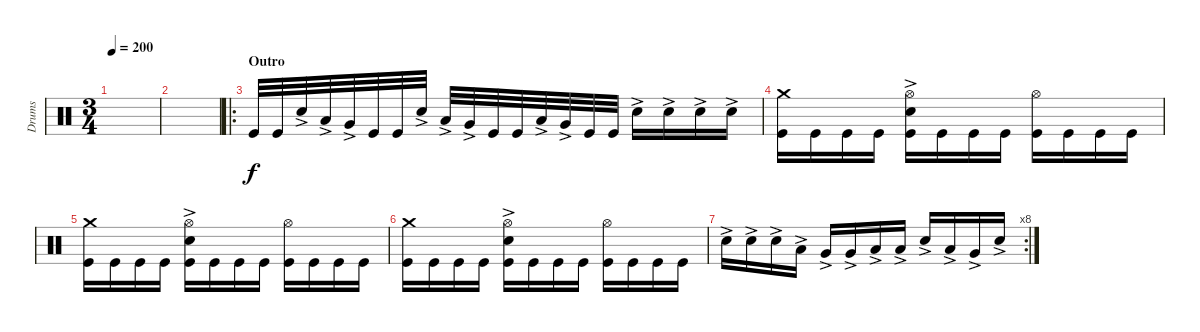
\track ("Drums" "Drums") {instrument percussion}
\staff {score}
\articulation defaults
\ts (3 4)
\tempo 200
\clef neutral
\ks c
|
|
\ro
\section ("" "Outro")
"Kick (hit)".32 "Kick (hit)".32 "Snare (hit) 2"{ac}.32 "Low Tom (hit)"{ac}.32 "Very Low Tom (hit)"{ac}.32 "Kick (hit)".32 "Kick (hit)".32 "Snare (hit) 2"{ac}.32 "Low Tom (hit)"{ac}.32 "Very Low Tom (hit)"{ac}.32 "Kick (hit)".32 "Kick (hit)".32 "Low Tom (hit)"{ac}.32 "Very Low Tom (hit)"{ac}.32 "Kick (hit)".32 "Kick (hit)".32 "Snare (hit) 2"{ac}.16 "Snare (hit) 2"{ac}.16 "Snare (hit) 2"{ac}.16 "Snare (hit) 2"{ac}.16 |
("Kick (hit)" "Crash medium (hit)").16 "Kick (hit)".16 "Kick (hit)".16 "Kick (hit)".16 ("Kick (hit)" "Hi-Hat (open)" "Snare (hit) 2"{ac}).16 "Kick (hit)".16 "Kick (hit)".16 "Kick (hit)".16 ("Kick (hit)" "Hi-Hat (open)").16 "Kick (hit)".16 "Kick (hit)".16 "Kick (hit)".16 |
("Kick (hit)" "Crash medium (hit)").16 "Kick (hit)".16 "Kick (hit)".16 "Kick (hit)".16 ("Kick (hit)" "Hi-Hat (open)" "Snare (hit) 2"{ac}).16 "Kick (hit)".16 "Kick (hit)".16 "Kick (hit)".16 ("Kick (hit)" "Hi-Hat (open)").16 "Kick (hit)".16 "Kick (hit)".16 "Kick (hit)".16 |
("Kick (hit)" "Crash medium (hit)").16 "Kick (hit)".16 "Kick (hit)".16 "Kick (hit)".16 ("Kick (hit)" "Hi-Hat (open)" "Snare (hit) 2"{ac}).16 "Kick (hit)".16 "Kick (hit)".16 "Kick (hit)".16 ("Kick (hit)" "Hi-Hat (open)").16 "Kick (hit)".16 "Kick (hit)".16 "Kick (hit)".16 |
\rc 8 "Snare (hit) 2"{ac}.16 "Snare (hit) 2"{ac}.16 "Snare (hit) 2"{ac}.16 "Low Tom (hit)"{ac}.16 "Very Low Tom (hit)"{ac}.16 "Very Low Tom (hit)"{ac}.16 "Low Floor Tom (hit)"{ac}.16 "Low Floor Tom (hit)"{ac}.16 "Snare (hit) 2"{ac}.16 "Low Tom (hit)"{ac}.16 "Very Low Tom (hit)"{ac}.16 "Snare (hit) 2"{ac}.16
